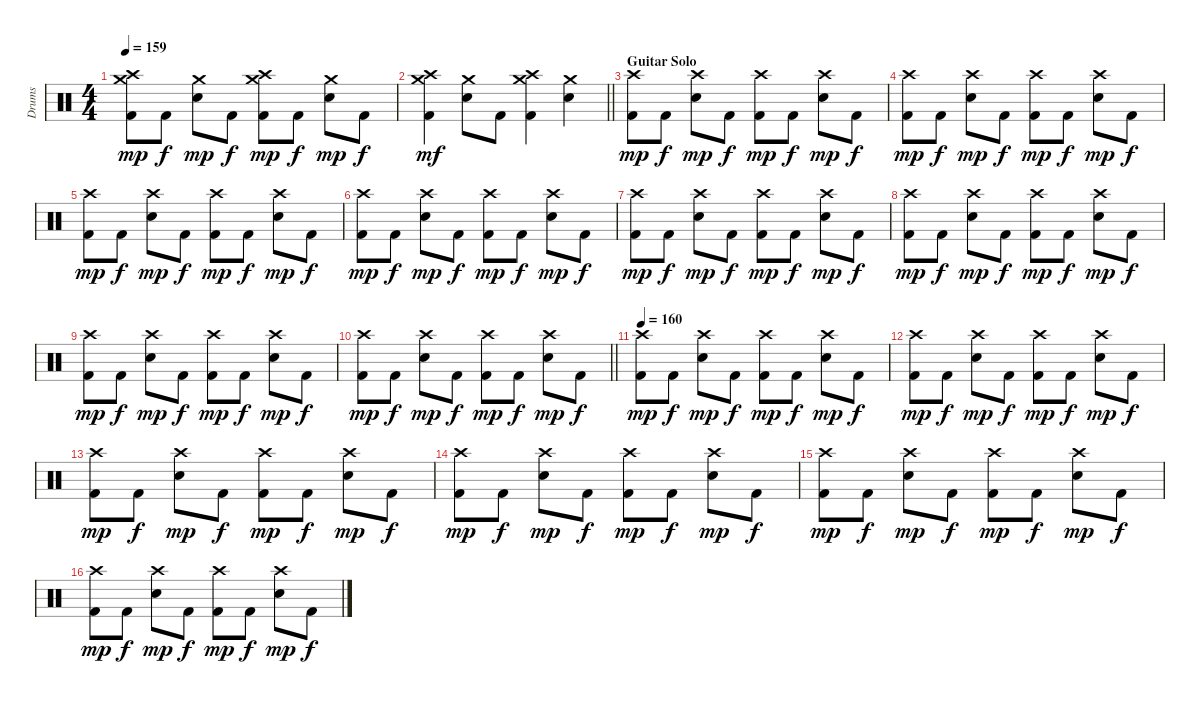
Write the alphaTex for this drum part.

\track ("Drums" "Drums") {instrument percussion}
\staff {score}
\articulation defaults
\ts (4 4)
\tempo 159
\clef neutral
\ks c
("Crash high (hit)" "Crash medium (hit)" "Kick (hit) 2").8{dy mp} "Kick (hit) 2".8{dy f} ("Crash medium (hit)" "Electric Snare (hit)").8{dy mp} "Kick (hit) 2".8{dy f} ("Crash high (hit)" "Crash medium (hit)" "Kick (hit) 2").8{dy mp} "Kick (hit) 2".8{dy f} ("Crash medium (hit)" "Electric Snare (hit)").8{dy mp} "Kick (hit) 2".8{dy f} |
\barLineRight lightlight
("Crash high (hit)" "Crash medium (hit)" "Kick (hit) 2").4{dy mf} ("Crash medium (hit)" "Electric Snare (hit)").8 "Kick (hit) 2".8 ("Crash high (hit)" "Crash medium (hit)" "Kick (hit) 2").4 ("Crash medium (hit)" "Electric Snare (hit)").4 |
\section ("" "Guitar Solo")
("Crash high (hit)" "Kick (hit) 2").8{dy mp} "Kick (hit) 2".8{dy f} ("Crash high (hit)" "Electric Snare (hit)").8{dy mp} "Kick (hit) 2".8{dy f} ("Crash high (hit)" "Kick (hit) 2").8{dy mp} "Kick (hit) 2".8{dy f} ("Crash high (hit)" "Electric Snare (hit)").8{dy mp} "Kick (hit) 2".8{dy f} |
("Crash high (hit)" "Kick (hit) 2").8{dy mp} "Kick (hit) 2".8{dy f} ("Crash high (hit)" "Electric Snare (hit)").8{dy mp} "Kick (hit) 2".8{dy f} ("Crash high (hit)" "Kick (hit) 2").8{dy mp} "Kick (hit) 2".8{dy f} ("Crash high (hit)" "Electric Snare (hit)").8{dy mp} "Kick (hit) 2".8{dy f} |
("Crash high (hit)" "Kick (hit) 2").8{dy mp} "Kick (hit) 2".8{dy f} ("Crash high (hit)" "Electric Snare (hit)").8{dy mp} "Kick (hit) 2".8{dy f} ("Crash high (hit)" "Kick (hit) 2").8{dy mp} "Kick (hit) 2".8{dy f} ("Crash high (hit)" "Electric Snare (hit)").8{dy mp} "Kick (hit) 2".8{dy f} |
("Crash high (hit)" "Kick (hit) 2").8{dy mp} "Kick (hit) 2".8{dy f} ("Crash high (hit)" "Electric Snare (hit)").8{dy mp} "Kick (hit) 2".8{dy f} ("Crash high (hit)" "Kick (hit) 2").8{dy mp} "Kick (hit) 2".8{dy f} ("Crash high (hit)" "Electric Snare (hit)").8{dy mp} "Kick (hit) 2".8{dy f} |
("Crash high (hit)" "Kick (hit) 2").8{dy mp} "Kick (hit) 2".8{dy f} ("Crash high (hit)" "Electric Snare (hit)").8{dy mp} "Kick (hit) 2".8{dy f} ("Crash high (hit)" "Kick (hit) 2").8{dy mp} "Kick (hit) 2".8{dy f} ("Crash high (hit)" "Electric Snare (hit)").8{dy mp} "Kick (hit) 2".8{dy f} |
("Crash high (hit)" "Kick (hit) 2").8{dy mp} "Kick (hit) 2".8{dy f} ("Crash high (hit)" "Electric Snare (hit)").8{dy mp} "Kick (hit) 2".8{dy f} ("Crash high (hit)" "Kick (hit) 2").8{dy mp} "Kick (hit) 2".8{dy f} ("Crash high (hit)" "Electric Snare (hit)").8{dy mp} "Kick (hit) 2".8{dy f} |
("Crash high (hit)" "Kick (hit) 2").8{dy mp} "Kick (hit) 2".8{dy f} ("Crash high (hit)" "Electric Snare (hit)").8{dy mp} "Kick (hit) 2".8{dy f} ("Crash high (hit)" "Kick (hit) 2").8{dy mp} "Kick (hit) 2".8{dy f} ("Crash high (hit)" "Electric Snare (hit)").8{dy mp} "Kick (hit) 2".8{dy f} |
\barLineRight lightlight
("Crash high (hit)" "Kick (hit) 2").8{dy mp} "Kick (hit) 2".8{dy f} ("Crash high (hit)" "Electric Snare (hit)").8{dy mp} "Kick (hit) 2".8{dy f} ("Crash high (hit)" "Kick (hit) 2").8{dy mp} "Kick (hit) 2".8{dy f} ("Crash high (hit)" "Electric Snare (hit)").8{dy mp} "Kick (hit) 2".8{dy f} |
\tempo 160
("Crash high (hit)" "Kick (hit) 2").8{dy mp} "Kick (hit) 2".8{dy f} ("Crash high (hit)" "Electric Snare (hit)").8{dy mp} "Kick (hit) 2".8{dy f} ("Crash high (hit)" "Kick (hit) 2").8{dy mp} "Kick (hit) 2".8{dy f} ("Crash high (hit)" "Electric Snare (hit)").8{dy mp} "Kick (hit) 2".8{dy f} |
("Crash high (hit)" "Kick (hit) 2").8{dy mp} "Kick (hit) 2".8{dy f} ("Crash high (hit)" "Electric Snare (hit)").8{dy mp} "Kick (hit) 2".8{dy f} ("Crash high (hit)" "Kick (hit) 2").8{dy mp} "Kick (hit) 2".8{dy f} ("Crash high (hit)" "Electric Snare (hit)").8{dy mp} "Kick (hit) 2".8{dy f} |
("Crash high (hit)" "Kick (hit) 2").8{dy mp} "Kick (hit) 2".8{dy f} ("Crash high (hit)" "Electric Snare (hit)").8{dy mp} "Kick (hit) 2".8{dy f} ("Crash high (hit)" "Kick (hit) 2").8{dy mp} "Kick (hit) 2".8{dy f} ("Crash high (hit)" "Electric Snare (hit)").8{dy mp} "Kick (hit) 2".8{dy f} |
("Crash high (hit)" "Kick (hit) 2").8{dy mp} "Kick (hit) 2".8{dy f} ("Crash high (hit)" "Electric Snare (hit)").8{dy mp} "Kick (hit) 2".8{dy f} ("Crash high (hit)" "Kick (hit) 2").8{dy mp} "Kick (hit) 2".8{dy f} ("Crash high (hit)" "Electric Snare (hit)").8{dy mp} "Kick (hit) 2".8{dy f} |
("Crash high (hit)" "Kick (hit) 2").8{dy mp} "Kick (hit) 2".8{dy f} ("Crash high (hit)" "Electric Snare (hit)").8{dy mp} "Kick (hit) 2".8{dy f} ("Crash high (hit)" "Kick (hit) 2").8{dy mp} "Kick (hit) 2".8{dy f} ("Crash high (hit)" "Electric Snare (hit)").8{dy mp} "Kick (hit) 2".8{dy f} |
("Crash high (hit)" "Kick (hit) 2").8{dy mp} "Kick (hit) 2".8{dy f} ("Crash high (hit)" "Electric Snare (hit)").8{dy mp} "Kick (hit) 2".8{dy f} ("Crash high (hit)" "Kick (hit) 2").8{dy mp} "Kick (hit) 2".8{dy f} ("Crash high (hit)" "Electric Snare (hit)").8{dy mp} "Kick (hit) 2".8{dy f}
